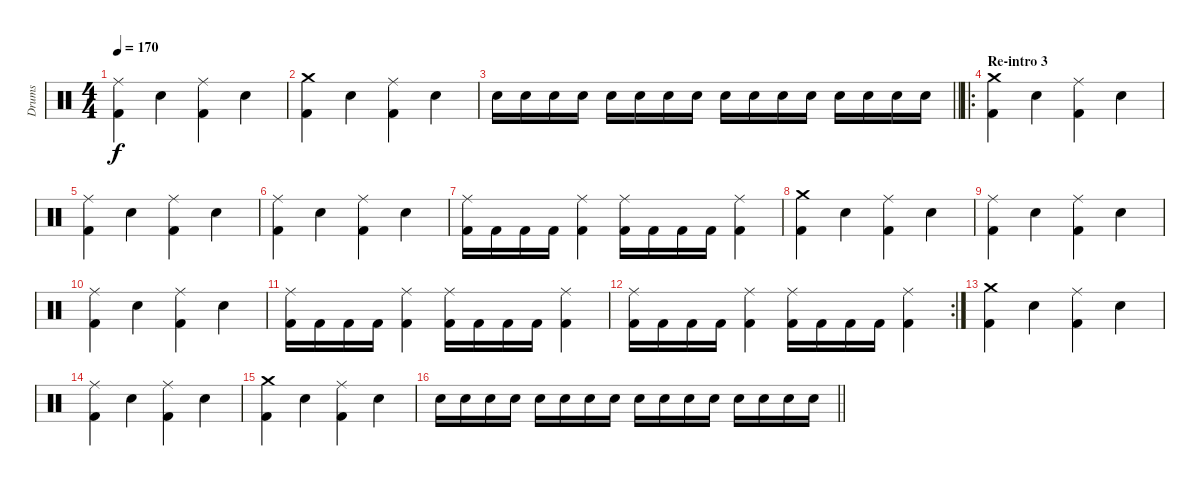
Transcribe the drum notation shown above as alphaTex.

\track ("Drums" "Drums") {instrument percussion}
\staff {score}
\articulation defaults
\ts (4 4)
\tempo 170
\clef neutral
\ks c
("Ride (middle)" "Kick (hit) 2").4{dy f} "Electric Snare (hit)".4 ("Ride (middle)" "Kick (hit) 2").4 "Electric Snare (hit)".4 |
("Crash medium (hit)" "Kick (hit) 2").4 "Electric Snare (hit)".4 ("Ride (middle)" "Kick (hit) 2").4 "Electric Snare (hit)".4 |
\barLineRight lightlight "Snare (hit) 2".16 "Snare (hit) 2".16 "Snare (hit) 2".16 "Snare (hit) 2".16 "Snare (hit) 2".16 "Snare (hit) 2".16 "Snare (hit) 2".16 "Snare (hit) 2".16 "Snare (hit) 2".16 "Snare (hit) 2".16 "Snare (hit) 2".16 "Snare (hit) 2".16 "Snare (hit) 2".16 "Snare (hit) 2".16 "Snare (hit) 2".16 "Snare (hit) 2".16
|
\ro
\section ("" "Re-intro 3")
("Crash medium (hit)" "Kick (hit) 2").4 "Electric Snare (hit)".4 ("Ride (middle)" "Kick (hit) 2").4 "Electric Snare (hit)".4 |
("Ride (middle)" "Kick (hit) 2").4 "Electric Snare (hit)".4 ("Ride (middle)" "Kick (hit) 2").4 "Electric Snare (hit)".4 |
("Ride (middle)" "Kick (hit) 2").4 "Electric Snare (hit)".4 ("Ride (middle)" "Kick (hit) 2").4 "Electric Snare (hit)".4 |
("Ride (middle)" "Kick (hit) 2").16 "Kick (hit) 2".16 "Kick (hit) 2".16 "Kick (hit) 2".16 ("Ride (middle)" "Kick (hit) 2").4 ("Ride (middle)" "Kick (hit) 2").16 "Kick (hit) 2".16 "Kick (hit) 2".16 "Kick (hit) 2".16 ("Ride (middle)" "Kick (hit) 2").4 |
("Crash medium (hit)" "Kick (hit) 2").4 "Electric Snare (hit)".4 ("Ride (middle)" "Kick (hit) 2").4 "Electric Snare (hit)".4 |
("Ride (middle)" "Kick (hit) 2").4 "Electric Snare (hit)".4 ("Ride (middle)" "Kick (hit) 2").4 "Electric Snare (hit)".4 |
("Ride (middle)" "Kick (hit) 2").4 "Electric Snare (hit)".4 ("Ride (middle)" "Kick (hit) 2").4 "Electric Snare (hit)".4 |
("Ride (middle)" "Kick (hit) 2").16 "Kick (hit) 2".16 "Kick (hit) 2".16 "Kick (hit) 2".16 ("Ride (middle)" "Kick (hit) 2").4 ("Ride (middle)" "Kick (hit) 2").16 "Kick (hit) 2".16 "Kick (hit) 2".16 "Kick (hit) 2".16 ("Ride (middle)" "Kick (hit) 2").4 |
\rc 2
("Ride (middle)" "Kick (hit) 2").16 "Kick (hit) 2".16 "Kick (hit) 2".16 "Kick (hit) 2".16 ("Ride (middle)" "Kick (hit) 2").4 ("Ride (middle)" "Kick (hit) 2").16 "Kick (hit) 2".16 "Kick (hit) 2".16 "Kick (hit) 2".16 ("Ride (middle)" "Kick (hit) 2").4 |
("Crash medium (hit)" "Kick (hit) 2").4 "Electric Snare (hit)".4 ("Ride (middle)" "Kick (hit) 2").4 "Electric Snare (hit)".4 |
("Ride (middle)" "Kick (hit) 2").4 "Electric Snare (hit)".4 ("Ride (middle)" "Kick (hit) 2").4 "Electric Snare (hit)".4 |
("Crash medium (hit)" "Kick (hit) 2").4 "Electric Snare (hit)".4 ("Ride (middle)" "Kick (hit) 2").4 "Electric Snare (hit)".4 |
\barLineRight lightlight "Snare (hit) 2".16 "Snare (hit) 2".16 "Snare (hit) 2".16 "Snare (hit) 2".16 "Snare (hit) 2".16 "Snare (hit) 2".16 "Snare (hit) 2".16 "Snare (hit) 2".16 "Snare (hit) 2".16 "Snare (hit) 2".16 "Snare (hit) 2".16 "Snare (hit) 2".16 "Snare (hit) 2".16 "Snare (hit) 2".16 "Snare (hit) 2".16 "Snare (hit) 2".16
